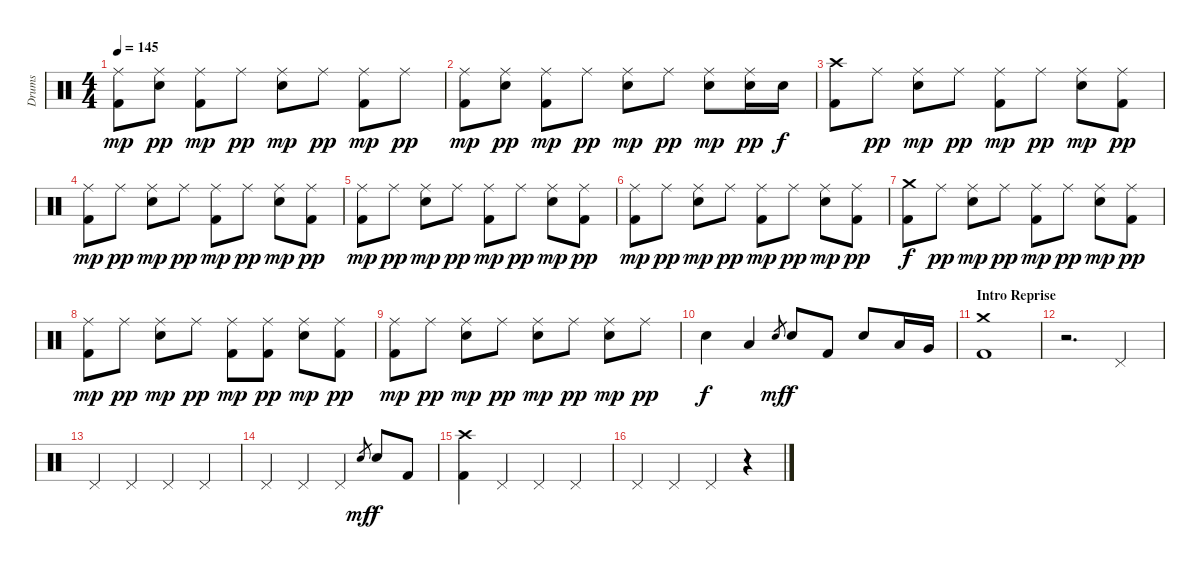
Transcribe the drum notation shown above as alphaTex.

\track ("Drums" "Drums") {instrument percussion}
\staff {score}
\articulation defaults
\ts (4 4)
\tempo 145
\clef neutral
\ks c
("Ride (middle)" "Kick (hit) 2").8{dy mp} ("Ride (middle)" "Snare (hit) 2").8{dy pp} ("Ride (middle)" "Kick (hit) 2").8{dy mp} "Ride (middle)".8{dy pp} ("Ride (middle)" "Snare (hit) 2").8{dy mp} "Ride (middle)".8{dy pp} ("Ride (middle)" "Kick (hit) 2").8{dy mp} "Ride (middle)".8{dy pp} |
("Ride (middle)" "Kick (hit) 2").8{dy mp} ("Ride (middle)" "Snare (hit) 2").8{dy pp} ("Ride (middle)" "Kick (hit) 2").8{dy mp} "Ride (middle)".8{dy pp} ("Ride (middle)" "Snare (hit) 2").8{dy mp} "Ride (middle)".8{dy pp} ("Ride (middle)" "Snare (hit) 2").8{dy mp} ("Ride (middle)" "Snare (hit) 2").16{dy pp} "Snare (hit) 2".16{dy f} |
("Crash high (hit)" "Kick (hit) 2").8 "Ride (middle)".8{dy pp} ("Ride (middle)" "Snare (hit) 2").8{dy mp} "Ride (middle)".8{dy pp} ("Ride (middle)" "Kick (hit) 2").8{dy mp} "Ride (middle)".8{dy pp} ("Ride (middle)" "Snare (hit) 2").8{dy mp} ("Ride (middle)" "Kick (hit) 2").8{dy pp} |
("Ride (middle)" "Kick (hit) 2").8{dy mp} "Ride (middle)".8{dy pp} ("Ride (middle)" "Snare (hit) 2").8{dy mp} "Ride (middle)".8{dy pp} ("Ride (middle)" "Kick (hit) 2").8{dy mp} "Ride (middle)".8{dy pp} ("Ride (middle)" "Snare (hit) 2").8{dy mp} ("Ride (middle)" "Kick (hit) 2").8{dy pp} |
("Ride (middle)" "Kick (hit) 2").8{dy mp} "Ride (middle)".8{dy pp} ("Ride (middle)" "Snare (hit) 2").8{dy mp} "Ride (middle)".8{dy pp} ("Ride (middle)" "Kick (hit) 2").8{dy mp} "Ride (middle)".8{dy pp} ("Ride (middle)" "Snare (hit) 2").8{dy mp} ("Ride (middle)" "Kick (hit) 2").8{dy pp} |
("Ride (middle)" "Kick (hit) 2").8{dy mp} "Ride (middle)".8{dy pp} ("Ride (middle)" "Snare (hit) 2").8{dy mp} "Ride (middle)".8{dy pp} ("Ride (middle)" "Kick (hit) 2").8{dy mp} "Ride (middle)".8{dy pp} ("Ride (middle)" "Snare (hit) 2").8{dy mp} ("Ride (middle)" "Kick (hit) 2").8{dy pp} |
("Crash medium (hit)" "Kick (hit) 2").8{dy f} "Ride (middle)".8{dy pp} ("Ride (middle)" "Snare (hit) 2").8{dy mp} "Ride (middle)".8{dy pp} ("Ride (middle)" "Kick (hit) 2").8{dy mp} "Ride (middle)".8{dy pp} ("Ride (middle)" "Snare (hit) 2").8{dy mp} ("Ride (middle)" "Kick (hit) 2").8{dy pp} |
("Ride (middle)" "Kick (hit) 2").8{dy mp} "Ride (middle)".8{dy pp} ("Ride (middle)" "Snare (hit) 2").8{dy mp} "Ride (middle)".8{dy pp} ("Ride (middle)" "Kick (hit) 2").8{dy mp} ("Ride (middle)" "Kick (hit) 2").8{dy pp} ("Ride (middle)" "Snare (hit) 2").8{dy mp} ("Ride (middle)" "Kick (hit) 2").8{dy pp} |
("Ride (middle)" "Kick (hit) 2").8{dy mp} "Ride (middle)".8{dy pp} ("Ride (middle)" "Snare (hit) 2").8{dy mp} "Ride (middle)".8{dy pp} ("Ride (middle)" "Snare (hit) 2").8{dy mp} "Ride (middle)".8{dy pp} ("Ride (middle)" "Snare (hit) 2").8{dy mp} "Ride (middle)".8{dy pp} |
"Snare (hit) 2".4{dy f} "Low Tom (hit)".4 "Snare (hit) 2".8{gr dy mf} "Snare (hit) 2".8{dy f} "Kick (hit) 2".8 "Snare (hit) 2".8 "Low Tom (hit)".16 "Very Low Tom (hit)".16 |
\section ("" "Intro Reprise")
("Crash medium (hit)" "Kick (hit) 2").1 |
r.2{d} "Pedal Hi-Hat (hit)".4 |
"Pedal Hi-Hat (hit)".4 "Pedal Hi-Hat (hit)".4 "Pedal Hi-Hat (hit)".4 "Pedal Hi-Hat (hit)".4 |
"Pedal Hi-Hat (hit)".4 "Pedal Hi-Hat (hit)".4 "Pedal Hi-Hat (hit)".4 "Snare (hit) 2".8{gr dy mf} "Snare (hit) 2".8{dy f} "Kick (hit) 2".8 |
("Crash high (hit)" "Kick (hit) 2").4 "Pedal Hi-Hat (hit)".4 "Pedal Hi-Hat (hit)".4 "Pedal Hi-Hat (hit)".4 |
"Pedal Hi-Hat (hit)".4 "Pedal Hi-Hat (hit)".4 "Pedal Hi-Hat (hit)".4 r.4
